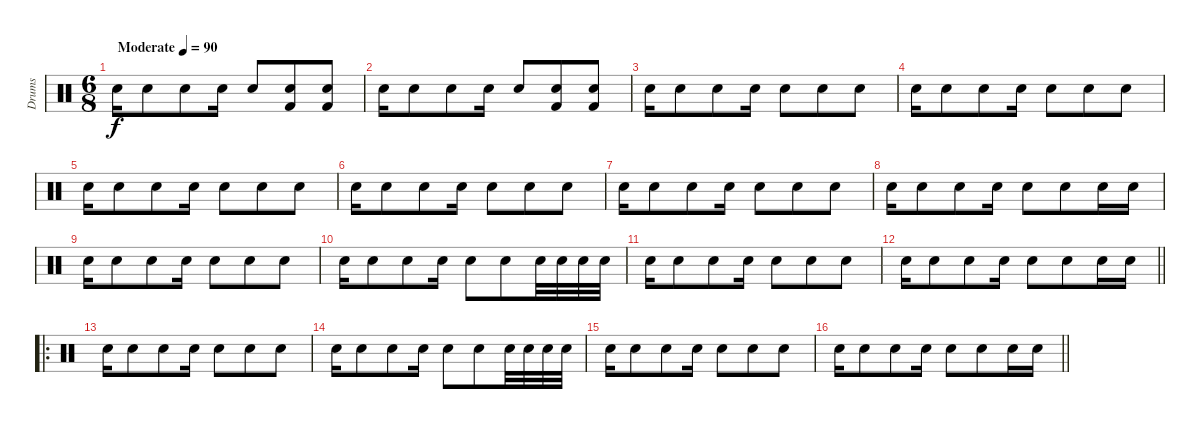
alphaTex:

\track ("Drums" "Drums") {instrument percussion}
\staff {score}
\articulation defaults
\ts (6 8)
\section ("" "")
\tempo (90 "Moderate")
\clef neutral
\ks c "Electric Snare (hit)".16{dy f} "Electric Snare (hit)".8 "Electric Snare (hit)".8 "Electric Snare (hit)".16 "Electric Snare (hit)".8
("Electric Snare (hit)" "Kick (hit) 2").8 ("Electric Snare (hit)" "Kick (hit) 2").8 |
"Electric Snare (hit)".16 "Electric Snare (hit)".8 "Electric Snare (hit)".8 "Electric Snare (hit)".16 "Electric Snare (hit)".8 ("Electric Snare (hit)" "Kick (hit) 2").8 ("Electric Snare (hit)" "Kick (hit) 2").8 |
"Electric Snare (hit)".16 "Electric Snare (hit)".8 "Electric Snare (hit)".8 "Electric Snare (hit)".16 "Electric Snare (hit)".8 "Electric Snare (hit)".8 "Electric Snare (hit)".8 |
"Electric Snare (hit)".16 "Electric Snare (hit)".8 "Electric Snare (hit)".8 "Electric Snare (hit)".16 "Electric Snare (hit)".8 "Electric Snare (hit)".8 "Electric Snare (hit)".8 |
"Electric Snare (hit)".16 "Electric Snare (hit)".8 "Electric Snare (hit)".8 "Electric Snare (hit)".16 "Electric Snare (hit)".8 "Electric Snare (hit)".8 "Electric Snare (hit)".8 |
"Electric Snare (hit)".16 "Electric Snare (hit)".8 "Electric Snare (hit)".8 "Electric Snare (hit)".16 "Electric Snare (hit)".8 "Electric Snare (hit)".8 "Electric Snare (hit)".8 |
"Electric Snare (hit)".16 "Electric Snare (hit)".8 "Electric Snare (hit)".8 "Electric Snare (hit)".16 "Electric Snare (hit)".8 "Electric Snare (hit)".8 "Electric Snare (hit)".8 |
"Electric Snare (hit)".16 "Electric Snare (hit)".8 "Electric Snare (hit)".8 "Electric Snare (hit)".16 "Electric Snare (hit)".8 "Electric Snare (hit)".8 "Electric Snare (hit)".16 "Electric Snare (hit)".16 |
"Electric Snare (hit)".16 "Electric Snare (hit)".8 "Electric Snare (hit)".8 "Electric Snare (hit)".16 "Electric Snare (hit)".8 "Electric Snare (hit)".8 "Electric Snare (hit)".8 |
"Electric Snare (hit)".16 "Electric Snare (hit)".8 "Electric Snare (hit)".8 "Electric Snare (hit)".16 "Electric Snare (hit)".8 "Electric Snare (hit)".8 "Electric Snare (hit)".32 "Electric Snare (hit)".32 "Electric Snare (hit)".32 "Electric Snare (hit)".32 |
"Electric Snare (hit)".16 "Electric Snare (hit)".8 "Electric Snare (hit)".8 "Electric Snare (hit)".16 "Electric Snare (hit)".8 "Electric Snare (hit)".8 "Electric Snare (hit)".8 |
\barLineRight lightlight "Electric Snare (hit)".16 "Electric Snare (hit)".8 "Electric Snare (hit)".8 "Electric Snare (hit)".16 "Electric Snare (hit)".8 "Electric Snare (hit)".8 "Electric Snare (hit)".16 "Electric Snare (hit)".16
|
\ro
\section ("" "")
"Electric Snare (hit)".16 "Electric Snare (hit)".8 "Electric Snare (hit)".8 "Electric Snare (hit)".16 "Electric Snare (hit)".8 "Electric Snare (hit)".8 "Electric Snare (hit)".8 |
"Electric Snare (hit)".16 "Electric Snare (hit)".8 "Electric Snare (hit)".8 "Electric Snare (hit)".16 "Electric Snare (hit)".8 "Electric Snare (hit)".8 "Electric Snare (hit)".32 "Electric Snare (hit)".32 "Electric Snare (hit)".32 "Electric Snare (hit)".32 |
"Electric Snare (hit)".16 "Electric Snare (hit)".8 "Electric Snare (hit)".8 "Electric Snare (hit)".16 "Electric Snare (hit)".8 "Electric Snare (hit)".8 "Electric Snare (hit)".8 |
\barLineRight lightlight "Electric Snare (hit)".16 "Electric Snare (hit)".8 "Electric Snare (hit)".8 "Electric Snare (hit)".16 "Electric Snare (hit)".8 "Electric Snare (hit)".8 "Electric Snare (hit)".16 "Electric Snare (hit)".16
